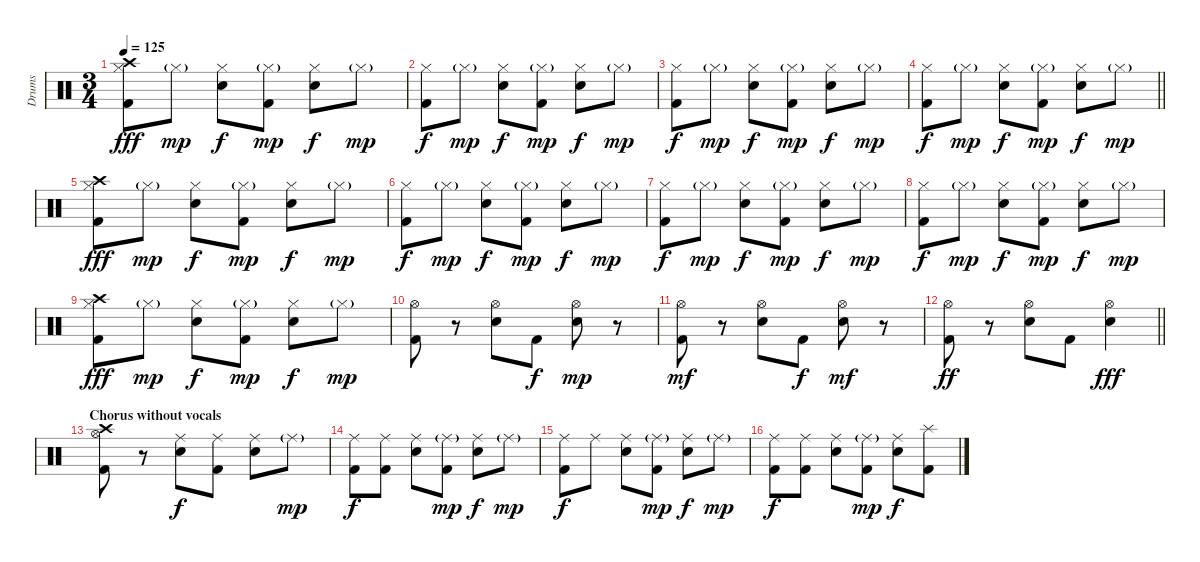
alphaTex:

\track ("Drums" "Drums") {instrument percussion}
\staff {score}
\articulation defaults
\ts (3 4)
\tempo 125
\clef neutral
\ks c
("Crash high (hit)" "Hi-Hat (closed)" "Kick (hit) 2").8{dy fff} "Hi-Hat (closed)"{g}.8{dy mp} ("Hi-Hat (closed)" "Electric Snare (hit)").8{dy f} ("Hi-Hat (closed)"{g} "Kick (hit) 2").8{dy mp} ("Hi-Hat (closed)" "Electric Snare (hit)").8{dy f} "Hi-Hat (closed)"{g}.8{dy mp} |
("Hi-Hat (closed)" "Kick (hit) 2").8{dy f} "Hi-Hat (closed)"{g}.8{dy mp} ("Hi-Hat (closed)" "Electric Snare (hit)").8{dy f} ("Hi-Hat (closed)"{g} "Kick (hit) 2").8{dy mp} ("Hi-Hat (closed)" "Electric Snare (hit)").8{dy f} "Hi-Hat (closed)"{g}.8{dy mp} |
("Hi-Hat (closed)" "Kick (hit) 2").8{dy f} "Hi-Hat (closed)"{g}.8{dy mp} ("Hi-Hat (closed)" "Electric Snare (hit)").8{dy f} ("Hi-Hat (closed)"{g} "Kick (hit) 2").8{dy mp} ("Hi-Hat (closed)" "Electric Snare (hit)").8{dy f} "Hi-Hat (closed)"{g}.8{dy mp} |
\barLineRight lightlight
("Hi-Hat (closed)" "Kick (hit) 2").8{dy f} "Hi-Hat (closed)"{g}.8{dy mp} ("Hi-Hat (closed)" "Electric Snare (hit)").8{dy f} ("Hi-Hat (closed)"{g} "Kick (hit) 2").8{dy mp} ("Hi-Hat (closed)" "Electric Snare (hit)").8{dy f} "Hi-Hat (closed)"{g}.8{dy mp} |
("Crash high (hit)" "Hi-Hat (closed)" "Kick (hit) 2").8{dy fff} "Hi-Hat (closed)"{g}.8{dy mp} ("Hi-Hat (closed)" "Electric Snare (hit)").8{dy f} ("Hi-Hat (closed)"{g} "Kick (hit) 2").8{dy mp} ("Hi-Hat (closed)" "Electric Snare (hit)").8{dy f} "Hi-Hat (closed)"{g}.8{dy mp} |
("Hi-Hat (closed)" "Kick (hit) 2").8{dy f} "Hi-Hat (closed)"{g}.8{dy mp} ("Hi-Hat (closed)" "Electric Snare (hit)").8{dy f} ("Hi-Hat (closed)"{g} "Kick (hit) 2").8{dy mp} ("Hi-Hat (closed)" "Electric Snare (hit)").8{dy f} "Hi-Hat (closed)"{g}.8{dy mp} |
("Hi-Hat (closed)" "Kick (hit) 2").8{dy f} "Hi-Hat (closed)"{g}.8{dy mp} ("Hi-Hat (closed)" "Electric Snare (hit)").8{dy f} ("Hi-Hat (closed)"{g} "Kick (hit) 2").8{dy mp} ("Hi-Hat (closed)" "Electric Snare (hit)").8{dy f} "Hi-Hat (closed)"{g}.8{dy mp} |
("Hi-Hat (closed)" "Kick (hit) 2").8{dy f} "Hi-Hat (closed)"{g}.8{dy mp} ("Hi-Hat (closed)" "Electric Snare (hit)").8{dy f} ("Hi-Hat (closed)"{g} "Kick (hit) 2").8{dy mp} ("Hi-Hat (closed)" "Electric Snare (hit)").8{dy f} "Hi-Hat (closed)"{g}.8{dy mp} |
("Crash high (hit)" "Hi-Hat (closed)" "Kick (hit) 2").8{dy fff} "Hi-Hat (closed)"{g}.8{dy mp} ("Hi-Hat (closed)" "Electric Snare (hit)").8{dy f} ("Hi-Hat (closed)"{g} "Kick (hit) 2").8{dy mp} ("Hi-Hat (closed)" "Electric Snare (hit)").8{dy f} "Hi-Hat (closed)"{g}.8{dy mp} |
("Hi-Hat (open)" "Kick (hit) 2").8 r.8 ("Hi-Hat (open)" "Electric Snare (hit)").8 "Kick (hit) 2".8{dy f} ("Hi-Hat (open)" "Electric Snare (hit)").8{dy mp} r.8 |
("Hi-Hat (open)" "Kick (hit) 2").8{dy mf} r.8 ("Hi-Hat (open)" "Electric Snare (hit)").8 "Kick (hit) 2".8{dy f} ("Hi-Hat (open)" "Electric Snare (hit)").8{dy mf} r.8 |
\barLineRight lightlight
("Hi-Hat (open)" "Kick (hit) 2").8{dy ff} r.8 ("Hi-Hat (open)" "Electric Snare (hit)").8 "Kick (hit) 2".8 ("Hi-Hat (open)" "Electric Snare (hit)").4{dy fff} |
\section ("" "Chorus without vocals")
("Crash high (hit)" "Hi-Hat (open)" "Kick (hit) 2").8 r.8 ("Ride (middle)" "Electric Snare (hit)").8{dy f} ("Ride (middle)" "Kick (hit) 2").8 ("Ride (middle)" "Electric Snare (hit)").8 "Ride (middle)"{g}.8{dy mp} |
("Ride (middle)" "Kick (hit) 2").8{dy f} ("Ride (middle)" "Kick (hit) 2").8 ("Ride (middle)" "Electric Snare (hit)").8 ("Ride (middle)"{g} "Kick (hit) 2").8{dy mp} ("Ride (middle)" "Electric Snare (hit)").8{dy f} "Ride (middle)"{g}.8{dy mp} |
("Ride (middle)" "Kick (hit) 2").8{dy f} "Ride (middle)".8 ("Ride (middle)" "Electric Snare (hit)").8 ("Ride (middle)"{g} "Kick (hit) 2").8{dy mp} ("Ride (middle)" "Electric Snare (hit)").8{dy f} "Ride (middle)"{g}.8{dy mp} |
("Ride (middle)" "Kick (hit) 2").8{dy f} ("Ride (middle)" "Kick (hit) 2").8 ("Ride (middle)" "Electric Snare (hit)").8 ("Ride (middle)"{g} "Kick (hit) 2").8{dy mp} ("Ride (middle)" "Electric Snare (hit)").8{dy f} ("Splash (hit)" "Kick (hit) 2").8
